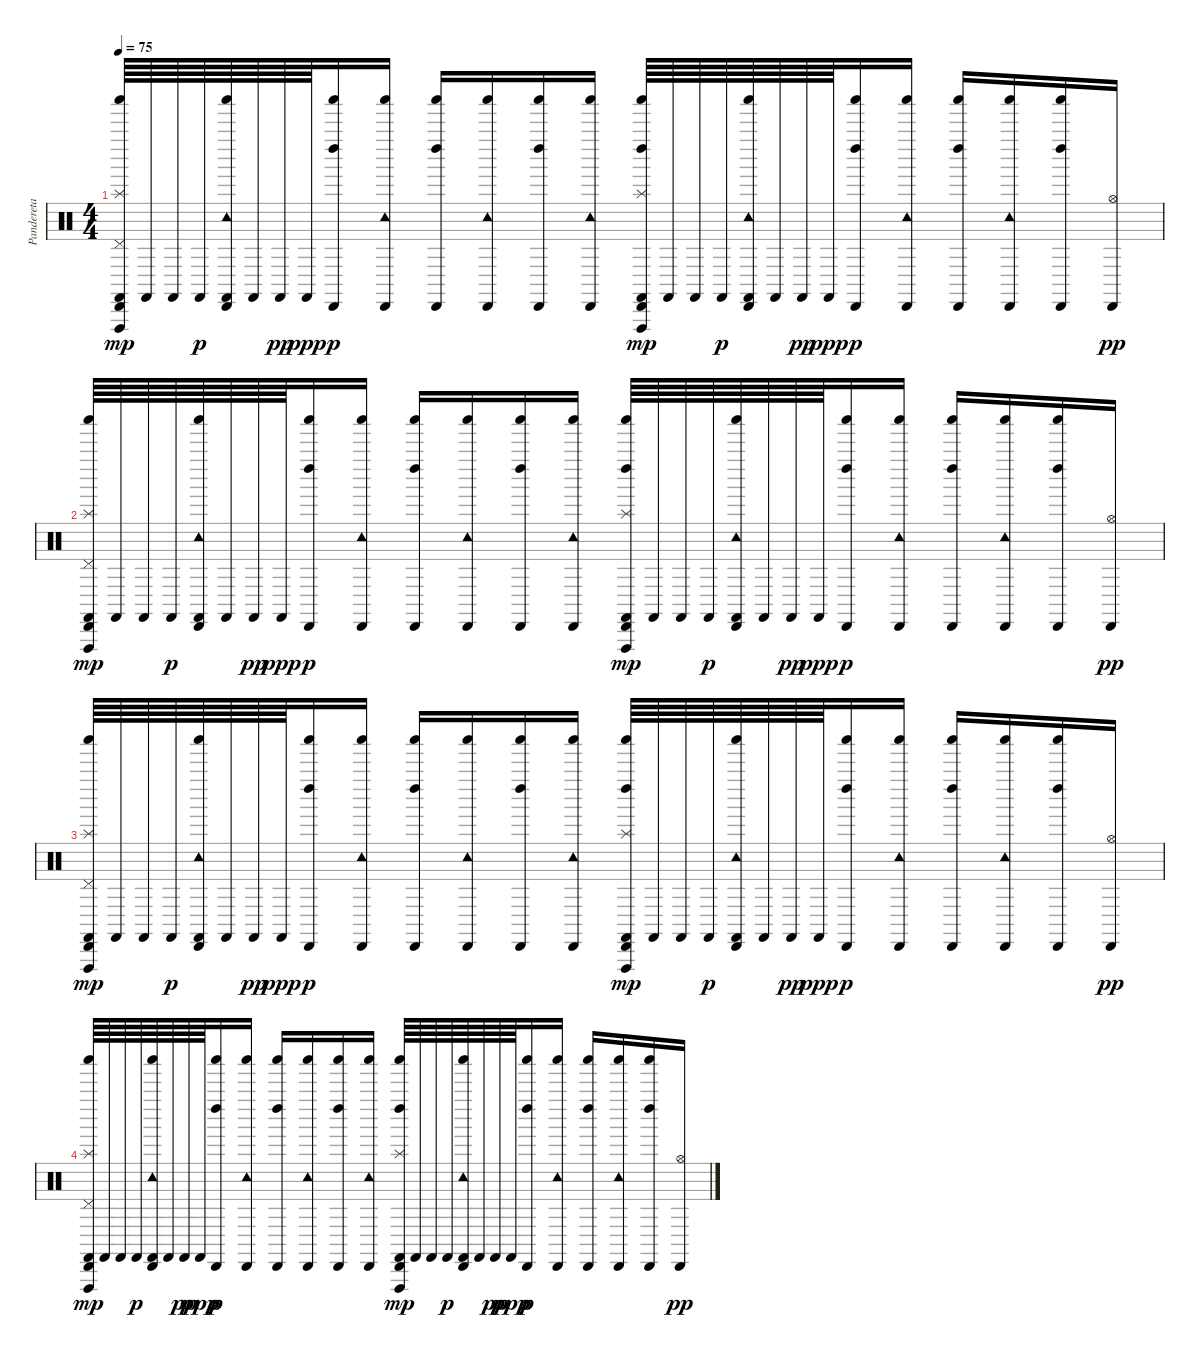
\track ("Pandereta" "Pandereta") {instrument percussion}
\staff {score}
\articulation defaults
\ts (4 4)
\tempo 75
\clef neutral
\ks c
("Cabasa (hit)" "Shaker (hit)" "Pedal Hi-Hat (hit)" "Splash (hit)" "Vibraslap (hit)" "Castanets (hit)").64{dy mp} "Castanets (hit)".64 "Castanets (hit)".64 "Castanets (hit)".64{dy p} ("Cabasa (hit)" "Tambourine (hit)" "Shaker (hit)" "Castanets (hit)").64 "Castanets (hit)".64 "Castanets (hit)".64{dy pp} "Castanets (hit)".64{dy ppp} ("Cabasa (hit)" "Left Maraca (hit)" "Shaker (hit)").16{dy p} ("Cabasa (hit)" "Tambourine (hit)" "Shaker (hit)").16 ("Cabasa (hit)" "Left Maraca (hit)" "Shaker (hit)").16 ("Cabasa (hit)" "Tambourine (hit)" "Shaker (hit)").16 ("Cabasa (hit)" "Left Maraca (hit)" "Shaker (hit)").16 ("Cabasa (hit)" "Tambourine (hit)" "Shaker (hit)").16 ("Cabasa (hit)" "Left Maraca (hit)" "Splash (hit)" "Shaker (hit)" "Vibraslap (hit)" "Castanets (hit)").64{dy mp} "Castanets (hit)".64 "Castanets (hit)".64 "Castanets (hit)".64{dy p} ("Cabasa (hit)" "Tambourine (hit)" "Shaker (hit)" "Castanets (hit)").64 "Castanets (hit)".64 "Castanets (hit)".64{dy pp} "Castanets (hit)".64{dy ppp} ("Cabasa (hit)" "Left Maraca (hit)" "Shaker (hit)").16{dy p} ("Cabasa (hit)" "Tambourine (hit)" "Shaker (hit)").16 ("Cabasa (hit)" "Left Maraca (hit)" "Shaker (hit)").16 ("Cabasa (hit)" "Tambourine (hit)" "Shaker (hit)").16 ("Cabasa (hit)" "Left Maraca (hit)" "Shaker (hit)").16 ("Cabasa (hit)" "Hi-Hat (open)").16{dy pp} |
("Cabasa (hit)" "Shaker (hit)" "Pedal Hi-Hat (hit)" "Splash (hit)" "Vibraslap (hit)" "Castanets (hit)").64{dy mp} "Castanets (hit)".64 "Castanets (hit)".64 "Castanets (hit)".64{dy p} ("Cabasa (hit)" "Tambourine (hit)" "Shaker (hit)" "Castanets (hit)").64 "Castanets (hit)".64 "Castanets (hit)".64{dy pp} "Castanets (hit)".64{dy ppp} ("Cabasa (hit)" "Left Maraca (hit)" "Shaker (hit)").16{dy p} ("Cabasa (hit)" "Tambourine (hit)" "Shaker (hit)").16 ("Cabasa (hit)" "Left Maraca (hit)" "Shaker (hit)").16 ("Cabasa (hit)" "Tambourine (hit)" "Shaker (hit)").16 ("Cabasa (hit)" "Left Maraca (hit)" "Shaker (hit)").16 ("Cabasa (hit)" "Tambourine (hit)" "Shaker (hit)").16 ("Cabasa (hit)" "Left Maraca (hit)" "Splash (hit)" "Shaker (hit)" "Vibraslap (hit)" "Castanets (hit)").64{dy mp} "Castanets (hit)".64 "Castanets (hit)".64 "Castanets (hit)".64{dy p} ("Cabasa (hit)" "Tambourine (hit)" "Shaker (hit)" "Castanets (hit)").64 "Castanets (hit)".64 "Castanets (hit)".64{dy pp} "Castanets (hit)".64{dy ppp} ("Cabasa (hit)" "Left Maraca (hit)" "Shaker (hit)").16{dy p} ("Cabasa (hit)" "Tambourine (hit)" "Shaker (hit)").16 ("Cabasa (hit)" "Left Maraca (hit)" "Shaker (hit)").16 ("Cabasa (hit)" "Tambourine (hit)" "Shaker (hit)").16 ("Cabasa (hit)" "Left Maraca (hit)" "Shaker (hit)").16 ("Cabasa (hit)" "Hi-Hat (open)").16{dy pp} |
("Cabasa (hit)" "Shaker (hit)" "Pedal Hi-Hat (hit)" "Splash (hit)" "Vibraslap (hit)" "Castanets (hit)").64{dy mp} "Castanets (hit)".64 "Castanets (hit)".64 "Castanets (hit)".64{dy p} ("Cabasa (hit)" "Tambourine (hit)" "Shaker (hit)" "Castanets (hit)").64 "Castanets (hit)".64 "Castanets (hit)".64{dy pp} "Castanets (hit)".64{dy ppp} ("Cabasa (hit)" "Left Maraca (hit)" "Shaker (hit)").16{dy p} ("Cabasa (hit)" "Tambourine (hit)" "Shaker (hit)").16 ("Cabasa (hit)" "Left Maraca (hit)" "Shaker (hit)").16 ("Cabasa (hit)" "Tambourine (hit)" "Shaker (hit)").16 ("Cabasa (hit)" "Left Maraca (hit)" "Shaker (hit)").16 ("Cabasa (hit)" "Tambourine (hit)" "Shaker (hit)").16 ("Cabasa (hit)" "Left Maraca (hit)" "Splash (hit)" "Shaker (hit)" "Vibraslap (hit)" "Castanets (hit)").64{dy mp} "Castanets (hit)".64 "Castanets (hit)".64 "Castanets (hit)".64{dy p} ("Cabasa (hit)" "Tambourine (hit)" "Shaker (hit)" "Castanets (hit)").64 "Castanets (hit)".64 "Castanets (hit)".64{dy pp} "Castanets (hit)".64{dy ppp} ("Cabasa (hit)" "Left Maraca (hit)" "Shaker (hit)").16{dy p} ("Cabasa (hit)" "Tambourine (hit)" "Shaker (hit)").16 ("Cabasa (hit)" "Left Maraca (hit)" "Shaker (hit)").16 ("Cabasa (hit)" "Tambourine (hit)" "Shaker (hit)").16 ("Cabasa (hit)" "Left Maraca (hit)" "Shaker (hit)").16 ("Cabasa (hit)" "Hi-Hat (open)").16{dy pp} |
("Cabasa (hit)" "Shaker (hit)" "Pedal Hi-Hat (hit)" "Splash (hit)" "Vibraslap (hit)" "Castanets (hit)").64{dy mp} "Castanets (hit)".64 "Castanets (hit)".64 "Castanets (hit)".64{dy p} ("Cabasa (hit)" "Tambourine (hit)" "Shaker (hit)" "Castanets (hit)").64 "Castanets (hit)".64 "Castanets (hit)".64{dy pp} "Castanets (hit)".64{dy ppp} ("Cabasa (hit)" "Left Maraca (hit)" "Shaker (hit)").16{dy p} ("Cabasa (hit)" "Tambourine (hit)" "Shaker (hit)").16 ("Cabasa (hit)" "Left Maraca (hit)" "Shaker (hit)").16 ("Cabasa (hit)" "Tambourine (hit)" "Shaker (hit)").16 ("Cabasa (hit)" "Left Maraca (hit)" "Shaker (hit)").16 ("Cabasa (hit)" "Tambourine (hit)" "Shaker (hit)").16 ("Cabasa (hit)" "Left Maraca (hit)" "Splash (hit)" "Shaker (hit)" "Vibraslap (hit)" "Castanets (hit)").64{dy mp} "Castanets (hit)".64 "Castanets (hit)".64 "Castanets (hit)".64{dy p} ("Cabasa (hit)" "Tambourine (hit)" "Shaker (hit)" "Castanets (hit)").64 "Castanets (hit)".64 "Castanets (hit)".64{dy pp} "Castanets (hit)".64{dy ppp} ("Cabasa (hit)" "Left Maraca (hit)" "Shaker (hit)").16{dy p} ("Cabasa (hit)" "Tambourine (hit)" "Shaker (hit)").16 ("Cabasa (hit)" "Left Maraca (hit)" "Shaker (hit)").16 ("Cabasa (hit)" "Tambourine (hit)" "Shaker (hit)").16 ("Cabasa (hit)" "Left Maraca (hit)" "Shaker (hit)").16 ("Cabasa (hit)" "Hi-Hat (open)").16{dy pp}
